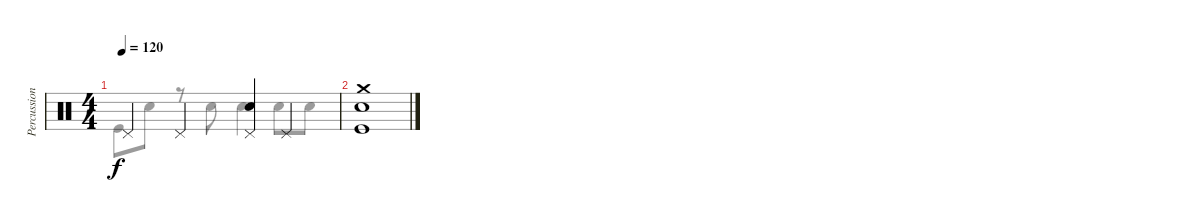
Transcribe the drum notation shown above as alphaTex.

\track ("Percussion" "Percussion") {instrument percussion}
\staff {score}
\articulation defaults
\voice
\ts (4 4)
\tempo 120
\clef neutral
\ks c "Pedal Hi-Hat (hit)".4{dy f} "Pedal Hi-Hat (hit)".4
("Pedal Hi-Hat (hit)" "Electric Snare (hit)").4 "Pedal Hi-Hat (hit)".4 |
("Crash medium (hit)" "Electric Snare (hit)" "Kick (hit)").1 |
\voice
\clef neutral
\ottava regular
\simile none
\ks c "Kick (hit)".8{dy f} "Electric Snare (hit)".8
r.8 "Electric Snare (hit)".8 "Electric Snare (hit)".4 "Electric Snare (hit)".8 "Electric Snare (hit)".8 |
|
